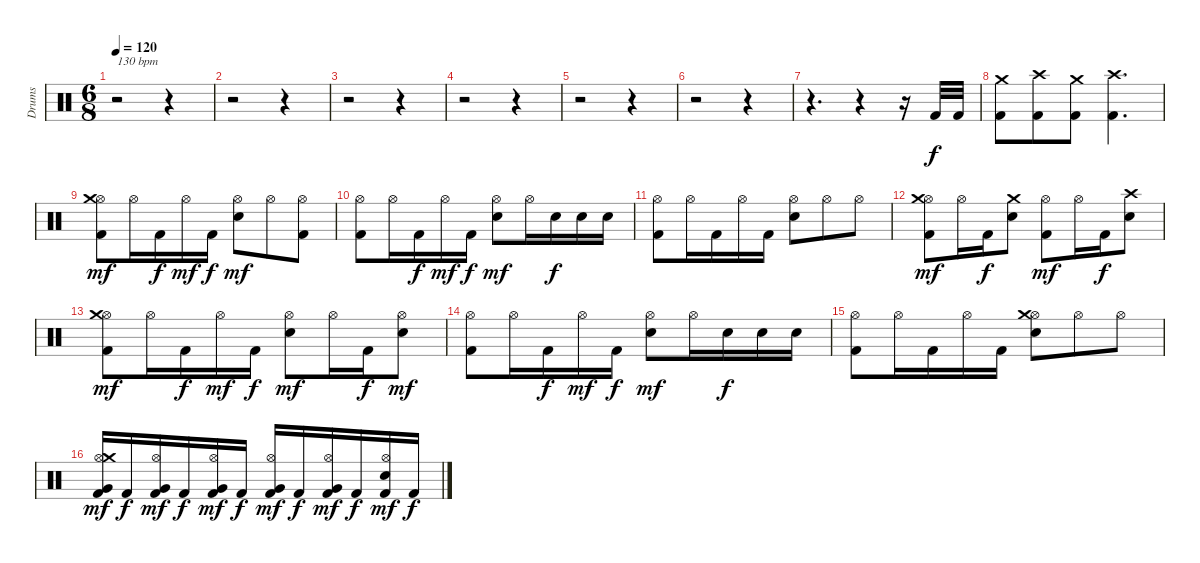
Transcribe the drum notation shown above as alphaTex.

\track ("Drums" "Drums") {instrument percussion}
\staff {score}
\articulation defaults
\ts (6 8)
\tempo 120
\clef neutral
\ks c
r.2{txt "130 bpm" dy f} r.4 |
r.2 r.4 |
r.2 r.4 |
r.2 r.4 |
r.2 r.4 |
r.2 r.4 |
r.4{d} r.4 r.16 "Kick (hit) 2".32 "Kick (hit) 2".32 |
("Kick (hit) 2" "Crash medium (hit)").8 ("Kick (hit) 2" "Crash high (hit)").8 ("Kick (hit) 2" "Crash medium (hit)").8 ("Kick (hit) 2" "Crash high (hit)").4{d} |
("Kick (hit) 2" "Hi-Hat (open)" "Crash medium (hit)").8{dy mf} "Hi-Hat (open)".16 "Kick (hit) 2".16{dy f} "Hi-Hat (open)".16{dy mf} "Kick (hit) 2".16{dy f} ("Snare (hit) 2" "Hi-Hat (open)").8{dy mf} "Hi-Hat (open)".8 ("Kick (hit) 2" "Hi-Hat (open)").8 |
("Kick (hit) 2" "Hi-Hat (open)").8 "Hi-Hat (open)".16 "Kick (hit) 2".16{dy f} "Hi-Hat (open)".16{dy mf} "Kick (hit) 2".16{dy f} ("Snare (hit) 2" "Hi-Hat (open)").8{dy mf} "Hi-Hat (open)".16 "Snare (hit) 2".16{dy f} "Snare (hit) 2".16 "Snare (hit) 2".16 |
("Kick (hit) 2" "Hi-Hat (open)").8 "Hi-Hat (open)".16 "Kick (hit) 2".16 "Hi-Hat (open)".16 "Kick (hit) 2".16 ("Snare (hit) 2" "Hi-Hat (open)").8 "Hi-Hat (open)".8 "Hi-Hat (open)".8 |
("Kick (hit) 2" "Hi-Hat (open)" "Crash medium (hit)").8{dy mf} "Hi-Hat (open)".16 "Kick (hit) 2".16{dy f} ("Snare (hit) 2" "Crash medium (hit)").8 ("Kick (hit) 2" "Hi-Hat (open)").8{dy mf} "Hi-Hat (open)".16 "Kick (hit) 2".16{dy f} ("Snare (hit) 2" "Crash high (hit)").8 |
("Kick (hit) 2" "Hi-Hat (open)" "Crash medium (hit)").8{dy mf} "Hi-Hat (open)".16 "Kick (hit) 2".16{dy f} "Hi-Hat (open)".16{dy mf} "Kick (hit) 2".16{dy f} ("Snare (hit) 2" "Hi-Hat (open)").8{dy mf} "Hi-Hat (open)".16 "Kick (hit) 2".16{dy f} ("Snare (hit) 2" "Hi-Hat (open)").8{dy mf} |
("Kick (hit) 2" "Hi-Hat (open)").8 "Hi-Hat (open)".16 "Kick (hit) 2".16{dy f} "Hi-Hat (open)".16{dy mf} "Kick (hit) 2".16{dy f} ("Snare (hit) 2" "Hi-Hat (open)").8{dy mf} "Hi-Hat (open)".16 "Snare (hit) 2".16{dy f} "Snare (hit) 2".16 "Snare (hit) 2".16 |
("Kick (hit) 2" "Hi-Hat (open)").8 "Hi-Hat (open)".16 "Kick (hit) 2".16 "Hi-Hat (open)".16 "Kick (hit) 2".16 ("Snare (hit) 2" "Hi-Hat (open)" "Crash medium (hit)").8 "Hi-Hat (open)".8 "Hi-Hat (open)".8 |
("Kick (hit) 2" "Very Low Tom (hit)" "Hi-Hat (open)" "Crash medium (hit)").16{dy mf} "Kick (hit) 2".16{dy f} ("Kick (hit) 2" "Very Low Tom (hit)" "Hi-Hat (open)").16{dy mf} "Kick (hit) 2".16{dy f} ("Kick (hit) 2" "Very Low Tom (hit)" "Hi-Hat (open)").16{dy mf} "Kick (hit) 2".16{dy f} ("Kick (hit) 2" "Very Low Tom (hit)" "Hi-Hat (open)").16{dy mf} "Kick (hit) 2".16{dy f} ("Kick (hit) 2" "Very Low Tom (hit)" "Hi-Hat (open)").16{dy mf} "Kick (hit) 2".16{dy f} ("Kick (hit) 2" "Snare (hit) 2" "Hi-Hat (open)").16{dy mf} "Kick (hit) 2".16{dy f}
